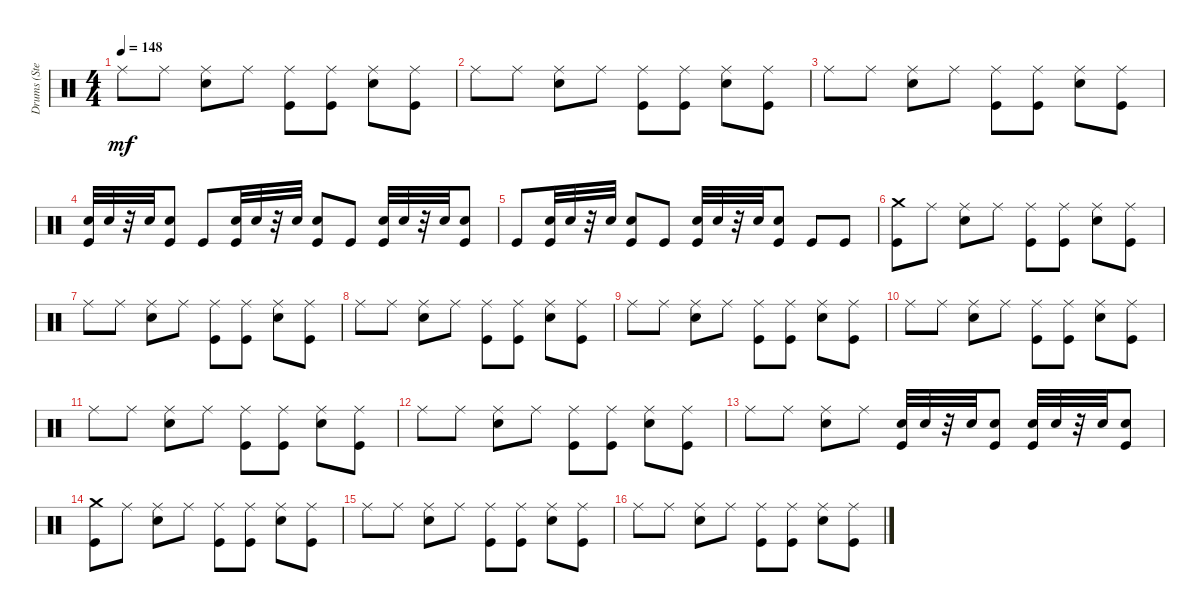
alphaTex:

\track ("Drums (Steven)" "Drums (Ste") {instrument percussion}
\staff {score}
\articulation defaults
\ts (4 4)
\tempo 148
\clef neutral
\ks c "Ride (middle)".8{dy mf} "Ride (middle)".8
("Snare (hit) 2" "Ride (middle)").8 "Ride (middle)".8 ("Kick (hit)" "Ride (middle)").8 ("Kick (hit)" "Ride (middle)").8 ("Snare (hit) 2" "Ride (middle)").8 ("Kick (hit)" "Ride (middle)").8 |
"Ride (middle)".8 "Ride (middle)".8 ("Snare (hit) 2" "Ride (middle)").8 "Ride (middle)".8 ("Kick (hit)" "Ride (middle)").8 ("Kick (hit)" "Ride (middle)").8 ("Snare (hit) 2" "Ride (middle)").8 ("Kick (hit)" "Ride (middle)").8 |
"Ride (middle)".8 "Ride (middle)".8 ("Snare (hit) 2" "Ride (middle)").8 "Ride (middle)".8 ("Kick (hit)" "Ride (middle)").8 ("Kick (hit)" "Ride (middle)").8 ("Snare (hit) 2" "Ride (middle)").8 ("Kick (hit)" "Ride (middle)").8 |
("Snare (hit) 2" "Kick (hit)").32 "Snare (hit) 2".32 r.32 "Snare (hit) 2".32 ("Snare (hit) 2" "Kick (hit)").8 "Kick (hit)".8 ("Snare (hit) 2" "Kick (hit)").32 "Snare (hit) 2".32 r.32 "Snare (hit) 2".32 ("Snare (hit) 2" "Kick (hit)").8 "Kick (hit)".8 ("Snare (hit) 2" "Kick (hit)").32 "Snare (hit) 2".32 r.32 "Snare (hit) 2".32 ("Snare (hit) 2" "Kick (hit)").8 |
"Kick (hit)".8 ("Snare (hit) 2" "Kick (hit)").32 "Snare (hit) 2".32 r.32 "Snare (hit) 2".32 ("Snare (hit) 2" "Kick (hit)").8 "Kick (hit)".8 ("Snare (hit) 2" "Kick (hit)").32 "Snare (hit) 2".32 r.32 "Snare (hit) 2".32 ("Snare (hit) 2" "Kick (hit)").8 "Kick (hit)".8 "Kick (hit)".8 |
("Kick (hit)" "Crash medium (hit)").8 "Ride (middle)".8 ("Snare (hit) 2" "Ride (middle)").8 "Ride (middle)".8 ("Kick (hit)" "Ride (middle)").8 ("Kick (hit)" "Ride (middle)").8 ("Snare (hit) 2" "Ride (middle)").8 ("Kick (hit)" "Ride (middle)").8 |
"Ride (middle)".8 "Ride (middle)".8 ("Snare (hit) 2" "Ride (middle)").8 "Ride (middle)".8 ("Kick (hit)" "Ride (middle)").8 ("Kick (hit)" "Ride (middle)").8 ("Snare (hit) 2" "Ride (middle)").8 ("Kick (hit)" "Ride (middle)").8 |
"Ride (middle)".8 "Ride (middle)".8 ("Snare (hit) 2" "Ride (middle)").8 "Ride (middle)".8 ("Kick (hit)" "Ride (middle)").8 ("Kick (hit)" "Ride (middle)").8 ("Snare (hit) 2" "Ride (middle)").8 ("Kick (hit)" "Ride (middle)").8 |
"Ride (middle)".8 "Ride (middle)".8 ("Snare (hit) 2" "Ride (middle)").8 "Ride (middle)".8 ("Kick (hit)" "Ride (middle)").8 ("Kick (hit)" "Ride (middle)").8 ("Snare (hit) 2" "Ride (middle)").8 ("Kick (hit)" "Ride (middle)").8 |
"Ride (middle)".8 "Ride (middle)".8 ("Snare (hit) 2" "Ride (middle)").8 "Ride (middle)".8 ("Kick (hit)" "Ride (middle)").8 ("Kick (hit)" "Ride (middle)").8 ("Snare (hit) 2" "Ride (middle)").8 ("Kick (hit)" "Ride (middle)").8 |
"Ride (middle)".8 "Ride (middle)".8 ("Snare (hit) 2" "Ride (middle)").8 "Ride (middle)".8 ("Kick (hit)" "Ride (middle)").8 ("Kick (hit)" "Ride (middle)").8 ("Snare (hit) 2" "Ride (middle)").8 ("Kick (hit)" "Ride (middle)").8 |
"Ride (middle)".8 "Ride (middle)".8 ("Snare (hit) 2" "Ride (middle)").8 "Ride (middle)".8 ("Kick (hit)" "Ride (middle)").8 ("Kick (hit)" "Ride (middle)").8 ("Snare (hit) 2" "Ride (middle)").8 ("Kick (hit)" "Ride (middle)").8 |
"Ride (middle)".8 "Ride (middle)".8 ("Snare (hit) 2" "Ride (middle)").8 "Ride (middle)".8 ("Snare (hit) 2" "Kick (hit)").32 "Snare (hit) 2".32 r.32 "Snare (hit) 2".32 ("Snare (hit) 2" "Kick (hit)").8 ("Snare (hit) 2" "Kick (hit)").32 "Snare (hit) 2".32 r.32 "Snare (hit) 2".32 ("Snare (hit) 2" "Kick (hit)").8 |
("Kick (hit)" "Crash medium (hit)").8 "Ride (middle)".8 ("Snare (hit) 2" "Ride (middle)").8 "Ride (middle)".8 ("Kick (hit)" "Ride (middle)").8 ("Kick (hit)" "Ride (middle)").8 ("Snare (hit) 2" "Ride (middle)").8 ("Kick (hit)" "Ride (middle)").8 |
"Ride (middle)".8 "Ride (middle)".8 ("Snare (hit) 2" "Ride (middle)").8 "Ride (middle)".8 ("Kick (hit)" "Ride (middle)").8 ("Kick (hit)" "Ride (middle)").8 ("Snare (hit) 2" "Ride (middle)").8 ("Kick (hit)" "Ride (middle)").8 |
"Ride (middle)".8 "Ride (middle)".8 ("Snare (hit) 2" "Ride (middle)").8 "Ride (middle)".8 ("Kick (hit)" "Ride (middle)").8 ("Kick (hit)" "Ride (middle)").8 ("Snare (hit) 2" "Ride (middle)").8 ("Kick (hit)" "Ride (middle)").8
